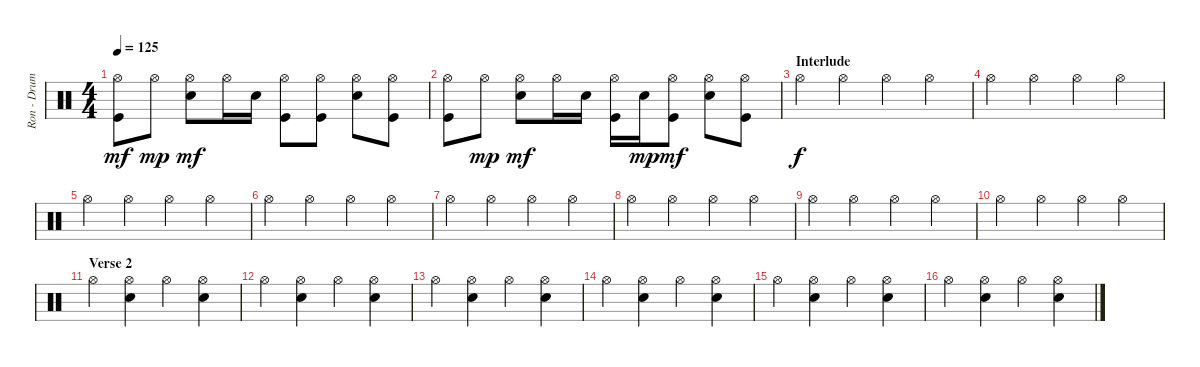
\track ("Ron - Drums" "Ron - Drum") {instrument percussion}
\staff {score}
\articulation defaults
\ts (4 4)
\tempo 125
\clef neutral
\ks c
("Hi-Hat (open)" "Kick (hit)").8{dy mf} "Hi-Hat (open)".8{dy mp} ("Hi-Hat (open)" "Electric Snare (hit)").8{dy mf} "Hi-Hat (open)".16 "Electric Snare (hit)".16 ("Hi-Hat (open)" "Kick (hit)").8 ("Hi-Hat (open)" "Kick (hit)").8 ("Hi-Hat (open)" "Electric Snare (hit)").8 ("Hi-Hat (open)" "Kick (hit)").8 |
("Hi-Hat (open)" "Kick (hit)").8 "Hi-Hat (open)".8{dy mp} ("Hi-Hat (open)" "Electric Snare (hit)").8{dy mf} "Hi-Hat (open)".16 "Electric Snare (hit)".16 ("Hi-Hat (open)" "Kick (hit)").16 "Electric Snare (hit)".16{dy mp} ("Hi-Hat (open)" "Kick (hit)").8{dy mf} ("Hi-Hat (open)" "Electric Snare (hit)").8 ("Hi-Hat (open)" "Kick (hit)").8 |
\section ("" "Interlude")
"Hi-Hat (open)".4{dy f} "Hi-Hat (open)".4 "Hi-Hat (open)".4 "Hi-Hat (open)".4 |
"Hi-Hat (open)".4 "Hi-Hat (open)".4 "Hi-Hat (open)".4 "Hi-Hat (open)".4 |
"Hi-Hat (open)".4 "Hi-Hat (open)".4 "Hi-Hat (open)".4 "Hi-Hat (open)".4 |
"Hi-Hat (open)".4 "Hi-Hat (open)".4 "Hi-Hat (open)".4 "Hi-Hat (open)".4 |
"Hi-Hat (open)".4 "Hi-Hat (open)".4 "Hi-Hat (open)".4 "Hi-Hat (open)".4 |
"Hi-Hat (open)".4 "Hi-Hat (open)".4 "Hi-Hat (open)".4 "Hi-Hat (open)".4 |
"Hi-Hat (open)".4 "Hi-Hat (open)".4 "Hi-Hat (open)".4 "Hi-Hat (open)".4 |
"Hi-Hat (open)".4 "Hi-Hat (open)".4 "Hi-Hat (open)".4 "Hi-Hat (open)".4 |
\section ("" "Verse 2")
"Hi-Hat (open)".4 ("Hi-Hat (open)" "Electric Snare (hit)").4 "Hi-Hat (open)".4 ("Hi-Hat (open)" "Electric Snare (hit)").4 |
"Hi-Hat (open)".4 ("Hi-Hat (open)" "Electric Snare (hit)").4 "Hi-Hat (open)".4 ("Hi-Hat (open)" "Electric Snare (hit)").4 |
"Hi-Hat (open)".4 ("Hi-Hat (open)" "Electric Snare (hit)").4 "Hi-Hat (open)".4 ("Hi-Hat (open)" "Electric Snare (hit)").4 |
"Hi-Hat (open)".4 ("Hi-Hat (open)" "Electric Snare (hit)").4 "Hi-Hat (open)".4 ("Hi-Hat (open)" "Electric Snare (hit)").4 |
"Hi-Hat (open)".4 ("Hi-Hat (open)" "Electric Snare (hit)").4 "Hi-Hat (open)".4 ("Hi-Hat (open)" "Electric Snare (hit)").4 |
"Hi-Hat (open)".4 ("Hi-Hat (open)" "Electric Snare (hit)").4 "Hi-Hat (open)".4 ("Hi-Hat (open)" "Electric Snare (hit)").4
